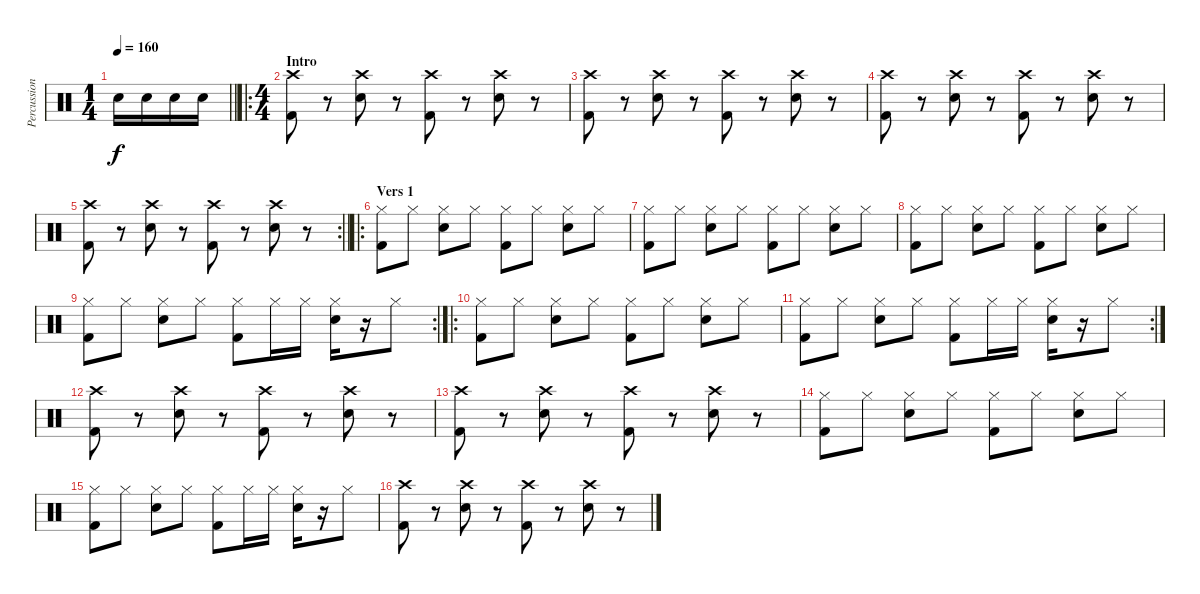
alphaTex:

\track ("Percussions" "Percussion") {instrument percussion}
\staff {score}
\articulation defaults
\ts (1 4)
\tempo 160
\clef neutral
\barLineRight lightlight
\ks c "Electric Snare (hit)".16{dy f} "Electric Snare (hit)".16 "Electric Snare (hit)".16 "Electric Snare (hit)".16
|
\ro
\ts (4 4)
\section ("" "Intro")
("Crash high (hit)" "Kick (hit) 2").8 r.8 ("Crash high (hit)" "Electric Snare (hit)").8 r.8 ("Crash high (hit)" "Kick (hit) 2").8 r.8 ("Crash high (hit)" "Electric Snare (hit)").8 r.8 |
("Crash high (hit)" "Kick (hit) 2").8 r.8 ("Crash high (hit)" "Electric Snare (hit)").8 r.8 ("Crash high (hit)" "Kick (hit) 2").8 r.8 ("Crash high (hit)" "Electric Snare (hit)").8 r.8 |
("Crash high (hit)" "Kick (hit) 2").8 r.8 ("Crash high (hit)" "Electric Snare (hit)").8 r.8 ("Crash high (hit)" "Kick (hit) 2").8 r.8 ("Crash high (hit)" "Electric Snare (hit)").8 r.8 |
\rc 2
\barLineRight lightlight
("Crash high (hit)" "Kick (hit) 2").8 r.8 ("Crash high (hit)" "Electric Snare (hit)").8 r.8 ("Crash high (hit)" "Kick (hit) 2").8 r.8 ("Crash high (hit)" "Electric Snare (hit)").8 r.8 |
\ro
\section ("" "Vers 1")
("Hi-Hat (closed)" "Kick (hit) 2").8 "Hi-Hat (closed)".8 ("Hi-Hat (closed)" "Electric Snare (hit)").8 "Hi-Hat (closed)".8 ("Hi-Hat (closed)" "Kick (hit) 2").8 "Hi-Hat (closed)".8 ("Hi-Hat (closed)" "Electric Snare (hit)").8 "Hi-Hat (closed)".8 |
("Hi-Hat (closed)" "Kick (hit) 2").8 "Hi-Hat (closed)".8 ("Hi-Hat (closed)" "Electric Snare (hit)").8 "Hi-Hat (closed)".8 ("Hi-Hat (closed)" "Kick (hit) 2").8 "Hi-Hat (closed)".8 ("Hi-Hat (closed)" "Electric Snare (hit)").8 "Hi-Hat (closed)".8 |
("Hi-Hat (closed)" "Kick (hit) 2").8 "Hi-Hat (closed)".8 ("Hi-Hat (closed)" "Electric Snare (hit)").8 "Hi-Hat (closed)".8 ("Hi-Hat (closed)" "Kick (hit) 2").8 "Hi-Hat (closed)".8 ("Hi-Hat (closed)" "Electric Snare (hit)").8 "Hi-Hat (closed)".8 |
\rc 2
("Hi-Hat (closed)" "Kick (hit) 2").8 "Hi-Hat (closed)".8 ("Hi-Hat (closed)" "Electric Snare (hit)").8 "Hi-Hat (closed)".8 ("Hi-Hat (closed)" "Kick (hit) 2").8 "Hi-Hat (closed)".16 "Hi-Hat (closed)".16 ("Hi-Hat (closed)" "Electric Snare (hit)").16 r.16 "Hi-Hat (closed)".8 |
\ro
("Hi-Hat (closed)" "Kick (hit) 2").8 "Hi-Hat (closed)".8 ("Hi-Hat (closed)" "Electric Snare (hit)").8 "Hi-Hat (closed)".8 ("Hi-Hat (closed)" "Kick (hit) 2").8 "Hi-Hat (closed)".8 ("Hi-Hat (closed)" "Electric Snare (hit)").8 "Hi-Hat (closed)".8 |
\rc 2
("Hi-Hat (closed)" "Kick (hit) 2").8 "Hi-Hat (closed)".8 ("Hi-Hat (closed)" "Electric Snare (hit)").8 "Hi-Hat (closed)".8 ("Hi-Hat (closed)" "Kick (hit) 2").8 "Hi-Hat (closed)".16 "Hi-Hat (closed)".16 ("Hi-Hat (closed)" "Electric Snare (hit)").16 r.16 "Hi-Hat (closed)".8 |
("Crash high (hit)" "Kick (hit) 2").8 r.8 ("Crash high (hit)" "Electric Snare (hit)").8 r.8 ("Crash high (hit)" "Kick (hit) 2").8 r.8 ("Crash high (hit)" "Electric Snare (hit)").8 r.8 |
("Crash high (hit)" "Kick (hit) 2").8 r.8 ("Crash high (hit)" "Electric Snare (hit)").8 r.8 ("Crash high (hit)" "Kick (hit) 2").8 r.8 ("Crash high (hit)" "Electric Snare (hit)").8 r.8 |
("Hi-Hat (closed)" "Kick (hit) 2").8 "Hi-Hat (closed)".8 ("Hi-Hat (closed)" "Electric Snare (hit)").8 "Hi-Hat (closed)".8 ("Hi-Hat (closed)" "Kick (hit) 2").8 "Hi-Hat (closed)".8 ("Hi-Hat (closed)" "Electric Snare (hit)").8 "Hi-Hat (closed)".8 |
("Hi-Hat (closed)" "Kick (hit) 2").8 "Hi-Hat (closed)".8 ("Hi-Hat (closed)" "Electric Snare (hit)").8 "Hi-Hat (closed)".8 ("Hi-Hat (closed)" "Kick (hit) 2").8 "Hi-Hat (closed)".16 "Hi-Hat (closed)".16 ("Hi-Hat (closed)" "Electric Snare (hit)").16 r.16 "Hi-Hat (closed)".8 |
("Crash high (hit)" "Kick (hit) 2").8 r.8 ("Crash high (hit)" "Electric Snare (hit)").8 r.8 ("Crash high (hit)" "Kick (hit) 2").8 r.8 ("Crash high (hit)" "Electric Snare (hit)").8 r.8
